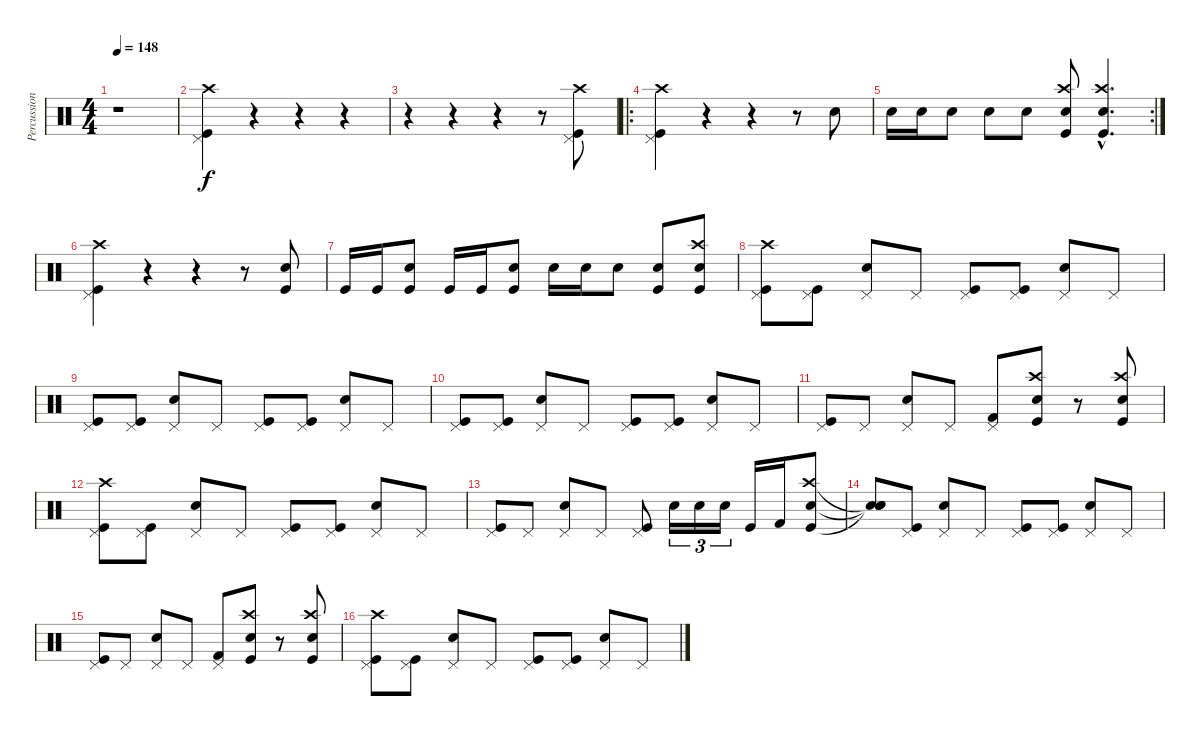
\track ("Percussion" "Percussion") {instrument percussion}
\staff {score}
\articulation defaults
\ts (4 4)
\tempo 148
\clef neutral
\ks c
r.1{dy f} |
("Pedal Hi-Hat (hit)" "Kick (hit)" "Crash high (hit)").4 r.4 r.4 r.4 |
r.4 r.4 r.4 r.8 ("Pedal Hi-Hat (hit)" "Kick (hit)" "Crash high (hit)").8 |
\ro
("Pedal Hi-Hat (hit)" "Kick (hit)" "Crash high (hit)").4 r.4 r.4 r.8 "Snare (hit) 2".8 |
\rc 2 "Snare (hit) 2".16 "Snare (hit) 2".16 "Snare (hit) 2".8 "Snare (hit) 2".8 "Snare (hit) 2".8
("Crash high (hit)" "Kick (hit)" "Snare (hit) 2").8 ("Crash high (hit)"{hac} "Kick (hit)"{hac} "Snare (hit) 2"{hac}).4{d} |
("Pedal Hi-Hat (hit)" "Kick (hit)" "Crash high (hit)").4 r.4 r.4 r.8 ("Snare (hit) 2" "Kick (hit)").8 |
"Kick (hit)".16 "Kick (hit)".16 ("Snare (hit) 2" "Kick (hit)").8 "Kick (hit)".16 "Kick (hit)".16 ("Snare (hit) 2" "Kick (hit)").8 "Snare (hit) 2".16 "Snare (hit) 2".16 "Snare (hit) 2".8 ("Snare (hit) 2" "Kick (hit)").8 ("Snare (hit) 2" "Kick (hit)" "Crash high (hit)").8 |
("Pedal Hi-Hat (hit)" "Kick (hit)" "Crash high (hit)").8 ("Pedal Hi-Hat (hit)" "Kick (hit)").8 ("Pedal Hi-Hat (hit)" "Snare (hit) 2").8 "Pedal Hi-Hat (hit)".8 ("Pedal Hi-Hat (hit)" "Kick (hit)").8 ("Pedal Hi-Hat (hit)" "Kick (hit)").8 ("Pedal Hi-Hat (hit)" "Snare (hit) 2").8 "Pedal Hi-Hat (hit)".8 |
("Pedal Hi-Hat (hit)" "Kick (hit)").8 ("Pedal Hi-Hat (hit)" "Kick (hit)").8 ("Pedal Hi-Hat (hit)" "Snare (hit) 2").8 "Pedal Hi-Hat (hit)".8 ("Pedal Hi-Hat (hit)" "Kick (hit)").8 ("Pedal Hi-Hat (hit)" "Kick (hit)").8 ("Pedal Hi-Hat (hit)" "Snare (hit) 2").8 "Pedal Hi-Hat (hit)".8 |
("Pedal Hi-Hat (hit)" "Kick (hit)").8 ("Pedal Hi-Hat (hit)" "Kick (hit)").8 ("Pedal Hi-Hat (hit)" "Snare (hit) 2").8 "Pedal Hi-Hat (hit)".8 ("Pedal Hi-Hat (hit)" "Kick (hit)").8 ("Pedal Hi-Hat (hit)" "Kick (hit)").8 ("Pedal Hi-Hat (hit)" "Snare (hit) 2").8 "Pedal Hi-Hat (hit)".8 |
("Pedal Hi-Hat (hit)" "Kick (hit)").8 "Pedal Hi-Hat (hit)".8 ("Pedal Hi-Hat (hit)" "Snare (hit) 2").8 "Pedal Hi-Hat (hit)".8 ("Pedal Hi-Hat (hit)" "Kick (hit) 2").8 ("Crash high (hit)" "Kick (hit)" "Snare (hit) 2").8 r.8 ("Crash high (hit)" "Kick (hit)" "Snare (hit) 2").8 |
("Pedal Hi-Hat (hit)" "Kick (hit)" "Crash high (hit)").8 ("Pedal Hi-Hat (hit)" "Kick (hit)").8 ("Pedal Hi-Hat (hit)" "Snare (hit) 2").8 "Pedal Hi-Hat (hit)".8 ("Pedal Hi-Hat (hit)" "Kick (hit)").8 ("Pedal Hi-Hat (hit)" "Kick (hit)").8 ("Pedal Hi-Hat (hit)" "Snare (hit) 2").8 "Pedal Hi-Hat (hit)".8 |
("Pedal Hi-Hat (hit)" "Kick (hit)").8 "Pedal Hi-Hat (hit)".8 ("Pedal Hi-Hat (hit)" "Snare (hit) 2").8 "Pedal Hi-Hat (hit)".8 ("Pedal Hi-Hat (hit)" "Kick (hit)").8 "Snare (hit) 2".16{tu (3 2)} "Snare (hit) 2".16{tu (3 2)} "Snare (hit) 2".16{tu (3 2)} "Kick (hit)".16 "Kick (hit) 2".16 ("Snare (hit) 2" "Crash high (hit)" "Kick (hit)").8 |
("Snare (hit)"{t} "Snare (hit)"{t} "Snare (hit)"{t}).8 ("Pedal Hi-Hat (hit)" "Kick (hit)").8 ("Pedal Hi-Hat (hit)" "Snare (hit) 2").8 "Pedal Hi-Hat (hit)".8 ("Pedal Hi-Hat (hit)" "Kick (hit)").8 ("Pedal Hi-Hat (hit)" "Kick (hit)").8 ("Pedal Hi-Hat (hit)" "Snare (hit) 2").8 "Pedal Hi-Hat (hit)".8 |
("Pedal Hi-Hat (hit)" "Kick (hit)").8 "Pedal Hi-Hat (hit)".8 ("Pedal Hi-Hat (hit)" "Snare (hit) 2").8 "Pedal Hi-Hat (hit)".8 ("Pedal Hi-Hat (hit)" "Kick (hit) 2").8 ("Crash high (hit)" "Kick (hit)" "Snare (hit) 2").8 r.8 ("Crash high (hit)" "Kick (hit)" "Snare (hit) 2").8 |
("Pedal Hi-Hat (hit)" "Kick (hit)" "Crash high (hit)").8 ("Pedal Hi-Hat (hit)" "Kick (hit)").8 ("Pedal Hi-Hat (hit)" "Snare (hit) 2").8 "Pedal Hi-Hat (hit)".8 ("Pedal Hi-Hat (hit)" "Kick (hit)").8 ("Pedal Hi-Hat (hit)" "Kick (hit)").8 ("Pedal Hi-Hat (hit)" "Snare (hit) 2").8 "Pedal Hi-Hat (hit)".8
